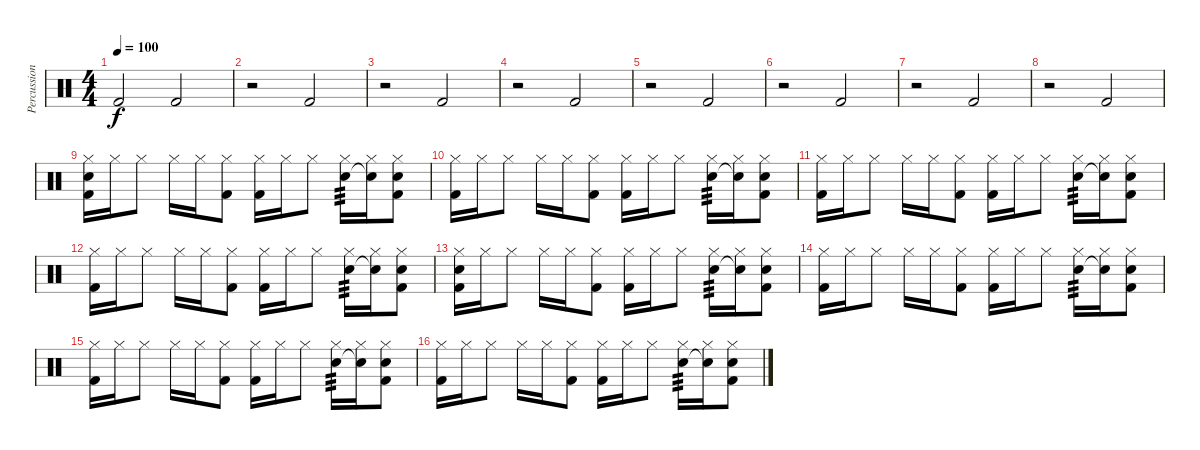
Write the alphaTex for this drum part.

\track ("Percussion" "Percussion") {instrument percussion}
\staff {score}
\articulation defaults
\ts (4 4)
\tempo 100
\clef neutral
\ks c "Kick (hit) 2".2{dy f} "Kick (hit) 2".2
|
r.2 "Kick (hit) 2".2 |
r.2 "Kick (hit) 2".2 |
r.2 "Kick (hit) 2".2 |
r.2 "Kick (hit) 2".2 |
r.2 "Kick (hit) 2".2 |
r.2 "Kick (hit) 2".2 |
r.2 "Kick (hit) 2".2 |
("Hi-Hat (closed)" "Snare (hit) 2" "Kick (hit) 2").16 "Hi-Hat (closed)".16 "Hi-Hat (closed)".8 "Hi-Hat (closed)".16 "Hi-Hat (closed)".16 ("Hi-Hat (closed)" "Kick (hit) 2").8 ("Hi-Hat (closed)" "Kick (hit) 2").16 "Hi-Hat (closed)".16 "Hi-Hat (closed)".8 ("Hi-Hat (closed)" "Snare (hit) 2").16{tp 3} ("Hi-Hat (closed)" "Snare (hit) 2"{t}).16 ("Hi-Hat (closed)" "Snare (hit) 2" "Kick (hit) 2").8 |
("Hi-Hat (closed)" "Kick (hit) 2").16 "Hi-Hat (closed)".16 "Hi-Hat (closed)".8 "Hi-Hat (closed)".16 "Hi-Hat (closed)".16 ("Hi-Hat (closed)" "Kick (hit) 2").8 ("Hi-Hat (closed)" "Kick (hit) 2").16 "Hi-Hat (closed)".16 "Hi-Hat (closed)".8 ("Hi-Hat (closed)" "Snare (hit) 2").16{tp 3} ("Hi-Hat (closed)" "Snare (hit) 2"{t}).16 ("Hi-Hat (closed)" "Snare (hit) 2" "Kick (hit) 2").8 |
("Hi-Hat (closed)" "Kick (hit) 2").16 "Hi-Hat (closed)".16 "Hi-Hat (closed)".8 "Hi-Hat (closed)".16 "Hi-Hat (closed)".16 ("Hi-Hat (closed)" "Kick (hit) 2").8 ("Hi-Hat (closed)" "Kick (hit) 2").16 "Hi-Hat (closed)".16 "Hi-Hat (closed)".8 ("Hi-Hat (closed)" "Snare (hit) 2").16{tp 3} ("Hi-Hat (closed)" "Snare (hit) 2"{t}).16 ("Hi-Hat (closed)" "Snare (hit) 2" "Kick (hit) 2").8 |
("Hi-Hat (closed)" "Kick (hit) 2").16 "Hi-Hat (closed)".16 "Hi-Hat (closed)".8 "Hi-Hat (closed)".16 "Hi-Hat (closed)".16 ("Hi-Hat (closed)" "Kick (hit) 2").8 ("Hi-Hat (closed)" "Kick (hit) 2").16 "Hi-Hat (closed)".16 "Hi-Hat (closed)".8 ("Hi-Hat (closed)" "Snare (hit) 2").16{tp 3} ("Hi-Hat (closed)" "Snare (hit) 2"{t}).16 ("Hi-Hat (closed)" "Snare (hit) 2" "Kick (hit) 2").8 |
("Hi-Hat (closed)" "Snare (hit) 2" "Kick (hit) 2").16 "Hi-Hat (closed)".16 "Hi-Hat (closed)".8 "Hi-Hat (closed)".16 "Hi-Hat (closed)".16 ("Hi-Hat (closed)" "Kick (hit) 2").8 ("Hi-Hat (closed)" "Kick (hit) 2").16 "Hi-Hat (closed)".16 "Hi-Hat (closed)".8 ("Hi-Hat (closed)" "Snare (hit) 2").16{tp 3} ("Hi-Hat (closed)" "Snare (hit) 2"{t}).16 ("Hi-Hat (closed)" "Snare (hit) 2" "Kick (hit) 2").8 |
("Hi-Hat (closed)" "Kick (hit) 2").16 "Hi-Hat (closed)".16 "Hi-Hat (closed)".8 "Hi-Hat (closed)".16 "Hi-Hat (closed)".16 ("Hi-Hat (closed)" "Kick (hit) 2").8 ("Hi-Hat (closed)" "Kick (hit) 2").16 "Hi-Hat (closed)".16 "Hi-Hat (closed)".8 ("Hi-Hat (closed)" "Snare (hit) 2").16{tp 3} ("Hi-Hat (closed)" "Snare (hit) 2"{t}).16 ("Hi-Hat (closed)" "Snare (hit) 2" "Kick (hit) 2").8 |
("Hi-Hat (closed)" "Kick (hit) 2").16 "Hi-Hat (closed)".16 "Hi-Hat (closed)".8 "Hi-Hat (closed)".16 "Hi-Hat (closed)".16 ("Hi-Hat (closed)" "Kick (hit) 2").8 ("Hi-Hat (closed)" "Kick (hit) 2").16 "Hi-Hat (closed)".16 "Hi-Hat (closed)".8 ("Hi-Hat (closed)" "Snare (hit) 2").16{tp 3} ("Hi-Hat (closed)" "Snare (hit) 2"{t}).16 ("Hi-Hat (closed)" "Snare (hit) 2" "Kick (hit) 2").8 |
("Hi-Hat (closed)" "Kick (hit) 2").16 "Hi-Hat (closed)".16 "Hi-Hat (closed)".8 "Hi-Hat (closed)".16 "Hi-Hat (closed)".16 ("Hi-Hat (closed)" "Kick (hit) 2").8 ("Hi-Hat (closed)" "Kick (hit) 2").16 "Hi-Hat (closed)".16 "Hi-Hat (closed)".8 ("Hi-Hat (closed)" "Snare (hit) 2").16{tp 3} ("Hi-Hat (closed)" "Snare (hit) 2"{t}).16 ("Hi-Hat (closed)" "Snare (hit) 2" "Kick (hit) 2").8
